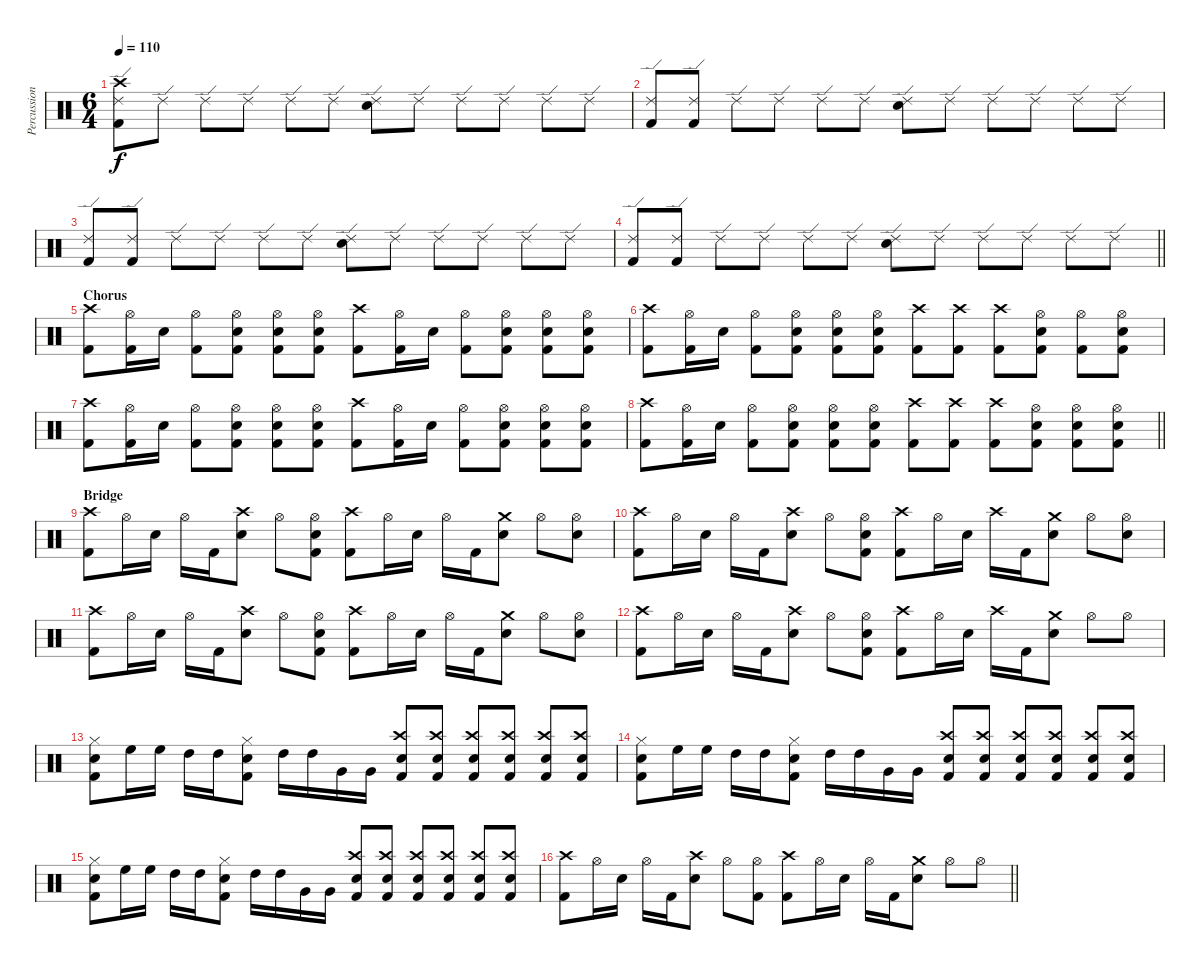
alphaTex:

\track ("Percussion" "Percussion") {instrument percussion}
\staff {score}
\articulation defaults
\ts (6 4)
\tempo 110
\clef neutral
\ks c
("Ride (edge) 2" "Kick (hit) 2" "Crash high (hit)").8{dy f} "Ride (edge) 2".8 "Ride (edge) 2".8 "Ride (edge) 2".8 "Ride (edge) 2".8 "Ride (edge) 2".8 ("Ride (edge) 2" "Electric Snare (hit)").8 "Ride (edge) 2".8 "Ride (edge) 2".8 "Ride (edge) 2".8 "Ride (edge) 2".8 "Ride (edge) 2".8 |
("Ride (edge) 2" "Kick (hit) 2").8 ("Ride (edge) 2" "Kick (hit) 2").8 "Ride (edge) 2".8 "Ride (edge) 2".8 "Ride (edge) 2".8 "Ride (edge) 2".8 ("Ride (edge) 2" "Electric Snare (hit)").8 "Ride (edge) 2".8 "Ride (edge) 2".8 "Ride (edge) 2".8 "Ride (edge) 2".8 "Ride (edge) 2".8 |
("Ride (edge) 2" "Kick (hit) 2").8 ("Ride (edge) 2" "Kick (hit) 2").8 "Ride (edge) 2".8 "Ride (edge) 2".8 "Ride (edge) 2".8 "Ride (edge) 2".8 ("Ride (edge) 2" "Electric Snare (hit)").8 "Ride (edge) 2".8 "Ride (edge) 2".8 "Ride (edge) 2".8 "Ride (edge) 2".8 "Ride (edge) 2".8 |
\barLineRight lightlight
("Ride (edge) 2" "Kick (hit) 2").8 ("Ride (edge) 2" "Kick (hit) 2").8 "Ride (edge) 2".8 "Ride (edge) 2".8 "Ride (edge) 2".8 "Ride (edge) 2".8 ("Ride (edge) 2" "Electric Snare (hit)").8 "Ride (edge) 2".8 "Ride (edge) 2".8 "Ride (edge) 2".8 "Ride (edge) 2".8 "Ride (edge) 2".8 |
\section ("" "Chorus")
("Crash high (hit)" "Kick (hit) 2").8 ("Hi-Hat (open)" "Kick (hit) 2").16 "Electric Snare (hit)".16 ("Hi-Hat (open)" "Kick (hit) 2").8 ("Hi-Hat (open)" "Kick (hit) 2" "Electric Snare (hit)").8 ("Hi-Hat (open)" "Kick (hit) 2" "Electric Snare (hit)").8 ("Hi-Hat (open)" "Kick (hit) 2" "Electric Snare (hit)").8 ("Crash high (hit)" "Kick (hit) 2").8 ("Hi-Hat (open)" "Kick (hit) 2").16 "Electric Snare (hit)".16 ("Hi-Hat (open)" "Kick (hit) 2").8 ("Hi-Hat (open)" "Kick (hit) 2" "Electric Snare (hit)").8 ("Hi-Hat (open)" "Kick (hit) 2" "Electric Snare (hit)").8 ("Hi-Hat (open)" "Kick (hit) 2" "Electric Snare (hit)").8 |
("Crash high (hit)" "Kick (hit) 2").8 ("Hi-Hat (open)" "Kick (hit) 2").16 "Electric Snare (hit)".16 ("Hi-Hat (open)" "Kick (hit) 2").8 ("Hi-Hat (open)" "Kick (hit) 2" "Electric Snare (hit)").8 ("Hi-Hat (open)" "Kick (hit) 2" "Electric Snare (hit)").8 ("Hi-Hat (open)" "Kick (hit) 2" "Electric Snare (hit)").8 ("Crash high (hit)" "Kick (hit) 2").8 ("Crash high (hit)" "Kick (hit) 2").8 ("Crash high (hit)" "Kick (hit) 2").8 ("Hi-Hat (open)" "Kick (hit) 2" "Electric Snare (hit)").8 ("Hi-Hat (open)" "Kick (hit) 2").8 ("Hi-Hat (open)" "Kick (hit) 2" "Electric Snare (hit)").8 |
("Crash high (hit)" "Kick (hit) 2").8 ("Hi-Hat (open)" "Kick (hit) 2").16 "Electric Snare (hit)".16 ("Hi-Hat (open)" "Kick (hit) 2").8 ("Hi-Hat (open)" "Kick (hit) 2" "Electric Snare (hit)").8 ("Hi-Hat (open)" "Kick (hit) 2" "Electric Snare (hit)").8 ("Hi-Hat (open)" "Kick (hit) 2" "Electric Snare (hit)").8 ("Crash high (hit)" "Kick (hit) 2").8 ("Hi-Hat (open)" "Kick (hit) 2").16 "Electric Snare (hit)".16 ("Hi-Hat (open)" "Kick (hit) 2").8 ("Hi-Hat (open)" "Kick (hit) 2" "Electric Snare (hit)").8 ("Hi-Hat (open)" "Kick (hit) 2" "Electric Snare (hit)").8 ("Hi-Hat (open)" "Kick (hit) 2" "Electric Snare (hit)").8 |
\barLineRight lightlight
("Crash high (hit)" "Kick (hit) 2").8 ("Hi-Hat (open)" "Kick (hit) 2").16 "Electric Snare (hit)".16 ("Hi-Hat (open)" "Kick (hit) 2").8 ("Hi-Hat (open)" "Kick (hit) 2" "Electric Snare (hit)").8 ("Hi-Hat (open)" "Kick (hit) 2" "Electric Snare (hit)").8 ("Hi-Hat (open)" "Kick (hit) 2" "Electric Snare (hit)").8 ("Crash high (hit)" "Kick (hit) 2").8 ("Crash high (hit)" "Kick (hit) 2").8 ("Crash high (hit)" "Kick (hit) 2").8 ("Hi-Hat (open)" "Kick (hit) 2" "Electric Snare (hit)").8 ("Hi-Hat (open)" "Kick (hit) 2" "Electric Snare (hit)").8 ("Hi-Hat (open)" "Kick (hit) 2" "Electric Snare (hit)").8 |
\section ("" "Bridge")
("Crash high (hit)" "Kick (hit) 2").8 "Hi-Hat (open)".16 "Electric Snare (hit)".16 "Hi-Hat (open)".16 "Kick (hit) 2".16 ("Crash high (hit)" "Electric Snare (hit)").8 "Hi-Hat (open)".8 ("Hi-Hat (open)" "Kick (hit) 2" "Electric Snare (hit)").8 ("Crash high (hit)" "Kick (hit) 2").8 "Hi-Hat (open)".16 "Electric Snare (hit)".16 "Hi-Hat (open)".16 "Kick (hit) 2".16 ("Crash medium (hit)" "Electric Snare (hit)").8 "Hi-Hat (open)".8 ("Hi-Hat (open)" "Electric Snare (hit)").8 |
("Crash high (hit)" "Kick (hit) 2").8 "Hi-Hat (open)".16 "Electric Snare (hit)".16 "Hi-Hat (open)".16 "Kick (hit) 2".16 ("Crash high (hit)" "Electric Snare (hit)").8 "Hi-Hat (open)".8 ("Hi-Hat (open)" "Kick (hit) 2" "Electric Snare (hit)").8 ("Crash high (hit)" "Kick (hit) 2").8 "Hi-Hat (open)".16 "Electric Snare (hit)".16 "Crash high (hit)".16 "Kick (hit) 2".16 ("Crash medium (hit)" "Electric Snare (hit)").8 "Hi-Hat (open)".8 ("Hi-Hat (open)" "Electric Snare (hit)").8 |
("Crash high (hit)" "Kick (hit) 2").8 "Hi-Hat (open)".16 "Electric Snare (hit)".16 "Hi-Hat (open)".16 "Kick (hit) 2".16 ("Crash high (hit)" "Electric Snare (hit)").8 "Hi-Hat (open)".8 ("Hi-Hat (open)" "Kick (hit) 2" "Electric Snare (hit)").8 ("Crash high (hit)" "Kick (hit) 2").8 "Hi-Hat (open)".16 "Electric Snare (hit)".16 "Hi-Hat (open)".16 "Kick (hit) 2".16 ("Crash medium (hit)" "Electric Snare (hit)").8 "Hi-Hat (open)".8 ("Hi-Hat (open)" "Electric Snare (hit)").8 |
("Crash high (hit)" "Kick (hit) 2").8 "Hi-Hat (open)".16 "Electric Snare (hit)".16 "Hi-Hat (open)".16 "Kick (hit) 2".16 ("Crash high (hit)" "Electric Snare (hit)").8 "Hi-Hat (open)".8 ("Hi-Hat (open)" "Kick (hit) 2" "Electric Snare (hit)").8 ("Crash high (hit)" "Kick (hit) 2").8 "Hi-Hat (open)".16 "Electric Snare (hit)".16 "Crash high (hit)".16 "Kick (hit) 2".16 ("Crash medium (hit)" "Electric Snare (hit)").8 "Hi-Hat (open)".8 "Hi-Hat (open)".8 |
("Hi-Hat (closed)" "Kick (hit) 2" "Electric Snare (hit)").8 "High Floor Tom (hit)".16 "High Floor Tom (hit)".16 "High Tom (hit)".16 "High Tom (hit)".16 ("Hi-Hat (closed)" "Kick (hit) 2" "Electric Snare (hit)").8 "High Tom (hit)".16 "High Tom (hit)".16 "Very Low Tom (hit)".16 "Very Low Tom (hit)".16 ("Crash high (hit)" "Kick (hit) 2" "Electric Snare (hit)").8 ("Crash high (hit)" "Kick (hit) 2" "Electric Snare (hit)").8 ("Crash high (hit)" "Kick (hit) 2" "Electric Snare (hit)").8 ("Crash high (hit)" "Kick (hit) 2" "Electric Snare (hit)").8 ("Crash high (hit)" "Kick (hit) 2" "Electric Snare (hit)").8 ("Crash high (hit)" "Kick (hit) 2" "Electric Snare (hit)").8 |
("Hi-Hat (closed)" "Kick (hit) 2" "Electric Snare (hit)").8 "High Floor Tom (hit)".16 "High Floor Tom (hit)".16 "High Tom (hit)".16 "High Tom (hit)".16 ("Hi-Hat (closed)" "Kick (hit) 2" "Electric Snare (hit)").8 "High Tom (hit)".16 "High Tom (hit)".16 "Very Low Tom (hit)".16 "Very Low Tom (hit)".16 ("Crash high (hit)" "Kick (hit) 2" "Electric Snare (hit)").8 ("Crash high (hit)" "Kick (hit) 2" "Electric Snare (hit)").8 ("Crash high (hit)" "Kick (hit) 2" "Electric Snare (hit)").8 ("Crash high (hit)" "Kick (hit) 2" "Electric Snare (hit)").8 ("Crash high (hit)" "Kick (hit) 2" "Electric Snare (hit)").8 ("Crash high (hit)" "Kick (hit) 2" "Electric Snare (hit)").8 |
("Hi-Hat (closed)" "Kick (hit) 2" "Electric Snare (hit)").8 "High Floor Tom (hit)".16 "High Floor Tom (hit)".16 "High Tom (hit)".16 "High Tom (hit)".16 ("Hi-Hat (closed)" "Kick (hit) 2" "Electric Snare (hit)").8 "High Tom (hit)".16 "High Tom (hit)".16 "Very Low Tom (hit)".16 "Very Low Tom (hit)".16 ("Crash high (hit)" "Kick (hit) 2" "Electric Snare (hit)").8 ("Crash high (hit)" "Kick (hit) 2" "Electric Snare (hit)").8 ("Crash high (hit)" "Kick (hit) 2" "Electric Snare (hit)").8 ("Crash high (hit)" "Kick (hit) 2" "Electric Snare (hit)").8 ("Crash high (hit)" "Kick (hit) 2" "Electric Snare (hit)").8 ("Crash high (hit)" "Kick (hit) 2" "Electric Snare (hit)").8 |
\barLineRight lightlight
("Crash high (hit)" "Kick (hit) 2").8 "Hi-Hat (open)".16 "Electric Snare (hit)".16 "Hi-Hat (open)".16 "Kick (hit) 2".16 ("Crash high (hit)" "Electric Snare (hit)").8 "Hi-Hat (open)".8 ("Hi-Hat (open)" "Kick (hit) 2").8 ("Crash high (hit)" "Kick (hit) 2").8 "Hi-Hat (open)".16 "Electric Snare (hit)".16 "Hi-Hat (open)".16 "Kick (hit) 2".16 ("Crash medium (hit)" "Electric Snare (hit)").8 "Hi-Hat (open)".8 "Hi-Hat (open)".8
